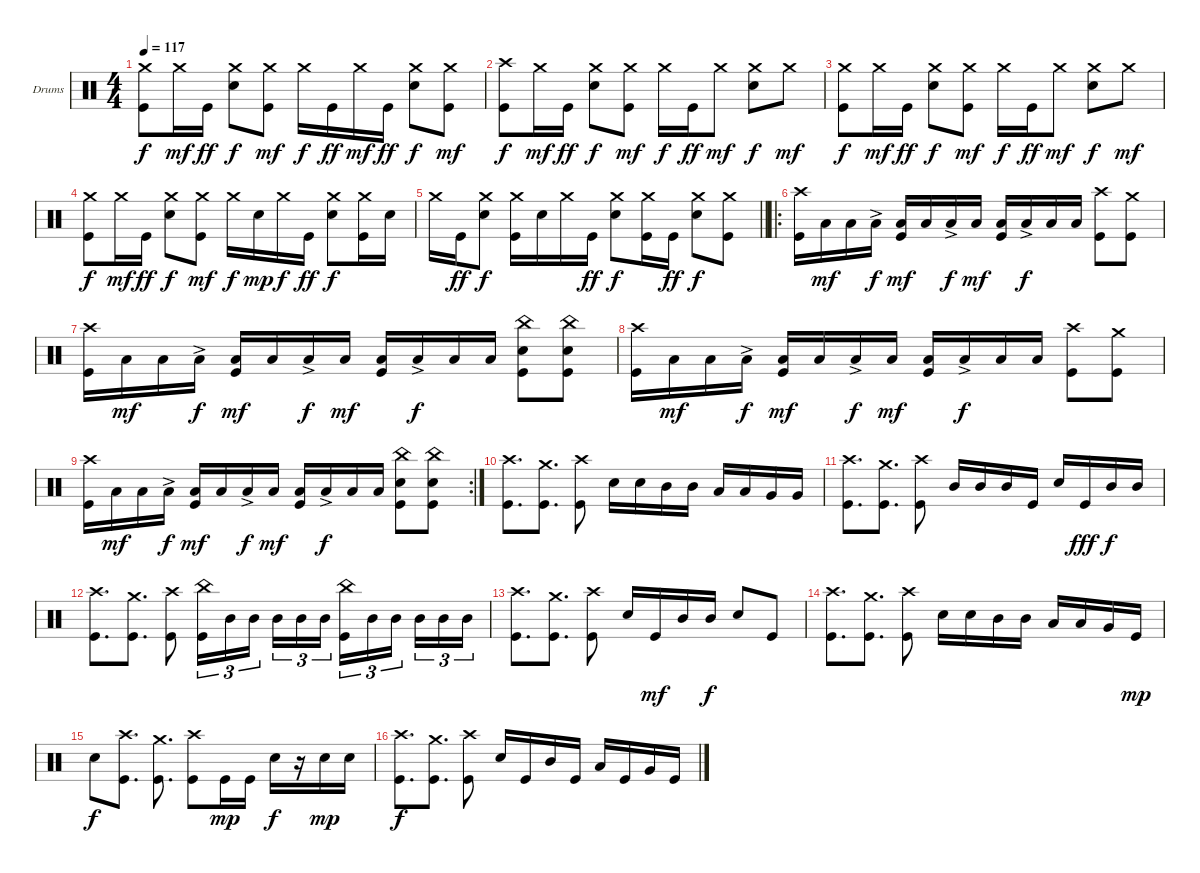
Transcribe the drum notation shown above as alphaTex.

\bracketExtendMode groupsimilarinstruments
\firstSystemTrackNameOrientation horizontal
\otherSystemsTrackNameOrientation horizontal
\track ("Dominic Drums" "Drums") {instrument percussion}
\staff {score}
\articulation defaults
\ts (4 4)
\tempo 117
\clef neutral
\ks c
("Crash medium (hit)" "Kick (hit)").8{dy f} "Crash medium (hit)".16{dy mf} "Kick (hit)".16{dy ff} ("Crash medium (hit)" "Snare (hit) 2").8{dy f} ("Crash medium (hit)" "Kick (hit)").8{dy mf} "Crash medium (hit)".16{dy f} "Kick (hit)".16{dy ff} "Crash medium (hit)".16{dy mf} "Kick (hit)".16{dy ff} ("Crash medium (hit)" "Snare (hit) 2").8{dy f} ("Crash medium (hit)" "Kick (hit)").8{dy mf} |
("Crash high (hit)" "Kick (hit)").8{dy f} "Crash medium (hit)".16{dy mf} "Kick (hit)".16{dy ff} ("Crash medium (hit)" "Snare (hit) 2").8{dy f} ("Crash medium (hit)" "Kick (hit)").8{dy mf} "Crash medium (hit)".16{dy f} "Kick (hit)".16{dy ff} "Crash medium (hit)".8{dy mf} ("Crash medium (hit)" "Snare (hit) 2").8{dy f} "Crash medium (hit)".8{dy mf} |
("Crash medium (hit)" "Kick (hit)").8{dy f} "Crash medium (hit)".16{dy mf} "Kick (hit)".16{dy ff} ("Crash medium (hit)" "Snare (hit) 2").8{dy f} ("Crash medium (hit)" "Kick (hit)").8{dy mf} "Crash medium (hit)".16{dy f} "Kick (hit)".16{dy ff} "Crash medium (hit)".8{dy mf} ("Crash medium (hit)" "Snare (hit) 2").8{dy f} "Crash medium (hit)".8{dy mf} |
("Crash medium (hit)" "Kick (hit)").8{dy f} "Crash medium (hit)".16{dy mf} "Kick (hit)".16{dy ff} ("Crash medium (hit)" "Snare (hit) 2").8{dy f} ("Crash medium (hit)" "Kick (hit)").8{dy mf} "Crash medium (hit)".16{dy f} "Snare (hit) 2".16{dy mp} "Crash medium (hit)".16{dy f} "Kick (hit)".16{dy ff} ("Crash medium (hit)" "Snare (hit) 2").8{dy f} ("Crash medium (hit)" "Kick (hit)").16 "Snare (hit) 2".16 |
\barLineRight lightlight "Crash medium (hit)".16 "Kick (hit)".16{dy ff}
("Crash medium (hit)" "Snare (hit) 2").8{dy f} ("Crash medium (hit)" "Kick (hit)").16 "Snare (hit) 2".16 "Crash medium (hit)".16 "Kick (hit)".16{dy ff} ("Crash medium (hit)" "Snare (hit) 2").8{dy f} ("Crash medium (hit)" "Kick (hit)").16 "Kick (hit)".16{dy ff} ("Crash medium (hit)" "Snare (hit) 2").8{dy f} ("Crash medium (hit)" "Kick (hit)").8 |
\ro
("Crash high (hit)" "Kick (hit)").16 "Low Tom (hit)".16{dy mf} "Low Tom (hit)".16 "Low Tom (hit)"{ac}.16{dy f} ("Low Tom (hit)" "Kick (hit)").16{dy mf} "Low Tom (hit)".16 "Low Tom (hit)"{ac}.16{dy f} "Low Tom (hit)".16{dy mf} ("Low Tom (hit)" "Kick (hit)").16 "Low Tom (hit)"{ac}.16{dy f} "Low Tom (hit)".16 "Low Tom (hit)".16 ("Crash high (hit)" "Kick (hit)").8 ("Crash medium (hit)" "Kick (hit)").8 |
("Crash high (hit)" "Kick (hit)").16 "Low Tom (hit)".16{dy mf} "Low Tom (hit)".16 "Low Tom (hit)"{ac}.16{dy f} ("Low Tom (hit)" "Kick (hit)").16{dy mf} "Low Tom (hit)".16 "Low Tom (hit)"{ac}.16{dy f} "Low Tom (hit)".16{dy mf} ("Low Tom (hit)" "Kick (hit)").16 "Low Tom (hit)"{ac}.16{dy f} "Low Tom (hit)".16 "Low Tom (hit)".16 ("China (hit)" "Snare (hit) 2" "Kick (hit)").8 ("China (hit)" "Snare (hit) 2" "Kick (hit)").8 |
("Crash high (hit)" "Kick (hit)").16 "Low Tom (hit)".16{dy mf} "Low Tom (hit)".16 "Low Tom (hit)"{ac}.16{dy f} ("Low Tom (hit)" "Kick (hit)").16{dy mf} "Low Tom (hit)".16 "Low Tom (hit)"{ac}.16{dy f} "Low Tom (hit)".16{dy mf} ("Low Tom (hit)" "Kick (hit)").16 "Low Tom (hit)"{ac}.16{dy f} "Low Tom (hit)".16 "Low Tom (hit)".16 ("Crash high (hit)" "Kick (hit)").8 ("Crash medium (hit)" "Kick (hit)").8 |
\rc 2
("Crash high (hit)" "Kick (hit)").16 "Low Tom (hit)".16{dy mf} "Low Tom (hit)".16 "Low Tom (hit)"{ac}.16{dy f} ("Low Tom (hit)" "Kick (hit)").16{dy mf} "Low Tom (hit)".16 "Low Tom (hit)"{ac}.16{dy f} "Low Tom (hit)".16{dy mf} ("Low Tom (hit)" "Kick (hit)").16 "Low Tom (hit)"{ac}.16{dy f} "Low Tom (hit)".16 "Low Tom (hit)".16 ("China (hit)" "Snare (hit) 2" "Kick (hit)").8 ("China (hit)" "Snare (hit) 2" "Kick (hit)").8 |
("Crash high (hit)" "Kick (hit)").8{d} ("Crash medium (hit)" "Kick (hit)").8{d} ("Crash high (hit)" "Kick (hit)").8 "Snare (hit) 2".16 "Snare (hit) 2".16 "Mid Tom (hit)".16 "Mid Tom (hit)".16 "Low Tom (hit)".16 "Low Tom (hit)".16 "Very Low Tom (hit)".16 "Very Low Tom (hit)".16 |
("Crash high (hit)" "Kick (hit)").8{d} ("Crash medium (hit)" "Kick (hit)").8{d} ("Crash high (hit)" "Kick (hit)").8 "Mid Tom (hit)".16 "Mid Tom (hit)".16 "Mid Tom (hit)".16 "Kick (hit)".16 "Snare (hit) 2".16 "Kick (hit)".16{dy fff} "Mid Tom (hit)".16{dy f} "Mid Tom (hit)".16 |
("Crash high (hit)" "Kick (hit)").8{d} ("Crash medium (hit)" "Kick (hit)").8{d} ("Crash high (hit)" "Kick (hit)").8 ("China (hit)" "Kick (hit)").16{tu (3 2)} "Mid Tom (hit)".16{tu (3 2)} "Mid Tom (hit)".16{tu (3 2)} "Mid Tom (hit)".16{tu (3 2)} "Mid Tom (hit)".16{tu (3 2)} "Mid Tom (hit)".16{tu (3 2)} ("China (hit)" "Kick (hit)").16{tu (3 2)} "Mid Tom (hit)".16{tu (3 2)} "Mid Tom (hit)".16{tu (3 2)} "Mid Tom (hit)".16{tu (3 2)} "Mid Tom (hit)".16{tu (3 2)} "Mid Tom (hit)".16{tu (3 2)} |
("Crash high (hit)" "Kick (hit)").8{d} ("Crash medium (hit)" "Kick (hit)").8{d} ("Crash high (hit)" "Kick (hit)").8 "Snare (hit) 2".16 "Kick (hit)".16{dy mf} "Mid Tom (hit)".16 "Mid Tom (hit)".16{dy f} "Snare (hit) 2".8 "Kick (hit)".8 |
("Crash high (hit)" "Kick (hit)").8{d} ("Crash medium (hit)" "Kick (hit)").8{d} ("Crash high (hit)" "Kick (hit)").8 "Snare (hit) 2".16 "Snare (hit) 2".16 "Mid Tom (hit)".16 "Mid Tom (hit)".16 "Low Tom (hit)".16 "Low Tom (hit)".16 "Very Low Tom (hit)".16 "Kick (hit)".16{dy mp} |
"Snare (hit) 2".8{dy f} ("Crash high (hit)" "Kick (hit)").8{d} ("Crash medium (hit)" "Kick (hit)").8{d} ("Crash high (hit)" "Kick (hit)").8 "Kick (hit)".16{dy mp} "Kick (hit)".16 "Snare (hit) 2".16{dy f} r.16 "Snare (hit) 2".16{dy mp} "Snare (hit) 2".16 |
("Crash high (hit)" "Kick (hit)").8{d dy f} ("Crash medium (hit)" "Kick (hit)").8{d} ("Crash high (hit)" "Kick (hit)").8 "Snare (hit) 2".16 "Kick (hit)".16 "Mid Tom (hit)".16 "Kick (hit)".16 "Low Tom (hit)".16 "Kick (hit)".16 "Very Low Tom (hit)".16 "Kick (hit)".16
